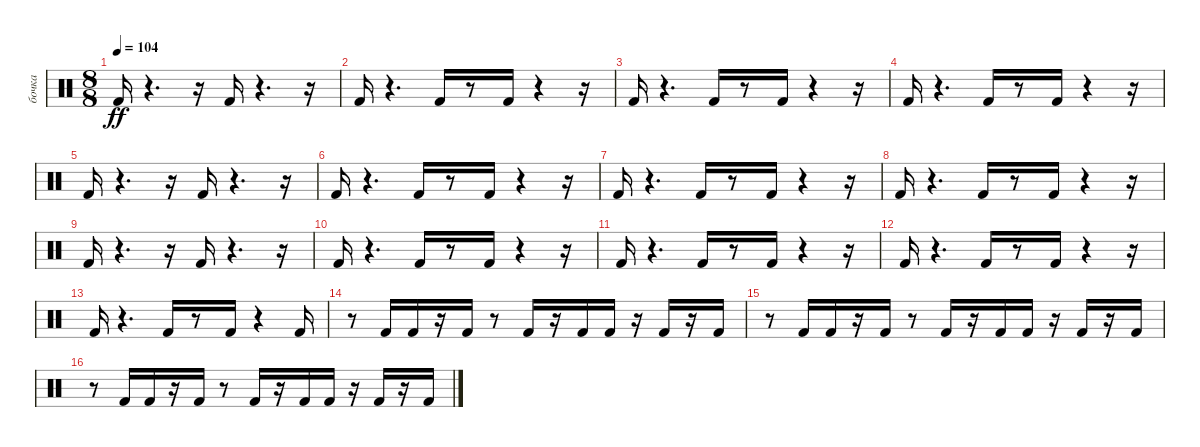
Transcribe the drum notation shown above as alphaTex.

\track ("бочка" "бочка") {instrument percussion}
\staff {score}
\articulation defaults
\ts (8 8)
\tempo 104
\clef neutral
\ks c "Kick (hit) 2".16{dy ff}
r.4{d} r.16 "Kick (hit) 2".16 r.4{d} r.16 |
"Kick (hit) 2".16 r.4{d} "Kick (hit) 2".16 r.8 "Kick (hit) 2".16 r.4 r.16 |
"Kick (hit) 2".16 r.4{d} "Kick (hit) 2".16 r.8 "Kick (hit) 2".16 r.4 r.16 |
"Kick (hit) 2".16 r.4{d} "Kick (hit) 2".16 r.8 "Kick (hit) 2".16 r.4 r.16 |
"Kick (hit) 2".16 r.4{d} r.16 "Kick (hit) 2".16 r.4{d} r.16 |
"Kick (hit) 2".16 r.4{d} "Kick (hit) 2".16 r.8 "Kick (hit) 2".16 r.4 r.16 |
"Kick (hit) 2".16 r.4{d} "Kick (hit) 2".16 r.8 "Kick (hit) 2".16 r.4 r.16 |
"Kick (hit) 2".16 r.4{d} "Kick (hit) 2".16 r.8 "Kick (hit) 2".16 r.4 r.16 |
"Kick (hit) 2".16 r.4{d} r.16 "Kick (hit) 2".16 r.4{d} r.16 |
"Kick (hit) 2".16 r.4{d} "Kick (hit) 2".16 r.8 "Kick (hit) 2".16 r.4 r.16 |
"Kick (hit) 2".16 r.4{d} "Kick (hit) 2".16 r.8 "Kick (hit) 2".16 r.4 r.16 |
"Kick (hit) 2".16 r.4{d} "Kick (hit) 2".16 r.8 "Kick (hit) 2".16 r.4 r.16 |
"Kick (hit) 2".16 r.4{d} "Kick (hit) 2".16 r.8 "Kick (hit) 2".16 r.4 "Kick (hit) 2".16 |
r.8 "Kick (hit) 2".16 "Kick (hit) 2".16 r.16 "Kick (hit) 2".16 r.8 "Kick (hit) 2".16 r.16 "Kick (hit) 2".16 "Kick (hit) 2".16 r.16 "Kick (hit) 2".16 r.16 "Kick (hit) 2".16 |
r.8 "Kick (hit) 2".16 "Kick (hit) 2".16 r.16 "Kick (hit) 2".16 r.8 "Kick (hit) 2".16 r.16 "Kick (hit) 2".16 "Kick (hit) 2".16 r.16 "Kick (hit) 2".16 r.16 "Kick (hit) 2".16 |
r.8 "Kick (hit) 2".16 "Kick (hit) 2".16 r.16 "Kick (hit) 2".16 r.8 "Kick (hit) 2".16 r.16 "Kick (hit) 2".16 "Kick (hit) 2".16 r.16 "Kick (hit) 2".16 r.16 "Kick (hit) 2".16
